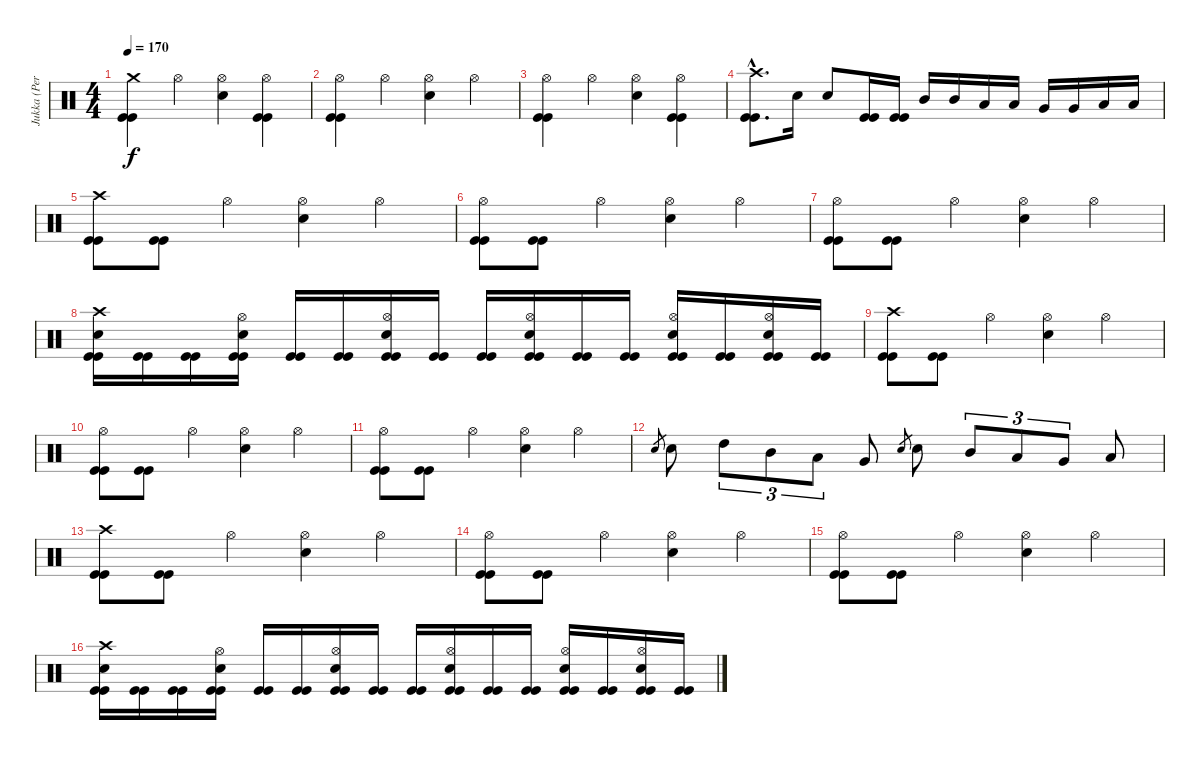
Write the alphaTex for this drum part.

\track ("Jukka (Percussion)" "Jukka (Per") {instrument percussion}
\staff {score}
\articulation defaults
\ts (4 4)
\tempo 170
\clef neutral
\ks c
("Crash medium (hit)" "Kick (hit)" "Kick (hit)").4{dy f} "Hi-Hat (open)".4 ("Hi-Hat (open)" "Snare (hit) 2").4 ("Hi-Hat (open)" "Kick (hit)" "Kick (hit)").4 |
("Hi-Hat (open)" "Kick (hit)" "Kick (hit)").4 "Hi-Hat (open)".4 ("Hi-Hat (open)" "Snare (hit) 2").4 "Hi-Hat (open)".4 |
("Hi-Hat (open)" "Kick (hit)" "Kick (hit)").4 "Hi-Hat (open)".4 ("Hi-Hat (open)" "Snare (hit) 2").4 ("Hi-Hat (open)" "Kick (hit)" "Kick (hit)").4 |
("Crash high (hit)"{hac} "Kick (hit)"{hac} "Kick (hit)"{hac}).8{d} "Snare (hit) 2".16 "Snare (hit) 2".8 ("Kick (hit)" "Kick (hit)").16 ("Kick (hit)" "Kick (hit)").16 "Mid Tom (hit)".16 "Mid Tom (hit)".16 "Low Tom (hit)".16 "Low Tom (hit)".16 "Very Low Tom (hit)".16 "Very Low Tom (hit)".16 "Low Floor Tom (hit)".16 "Low Floor Tom (hit)".16 |
("Crash high (hit)" "Kick (hit)" "Kick (hit)").8 ("Kick (hit)" "Kick (hit)").8 "Hi-Hat (open)".4 ("Hi-Hat (open)" "Snare (hit) 2").4 "Hi-Hat (open)".4 |
("Hi-Hat (open)" "Kick (hit)" "Kick (hit)").8 ("Kick (hit)" "Kick (hit)").8 "Hi-Hat (open)".4 ("Hi-Hat (open)" "Snare (hit) 2").4 "Hi-Hat (open)".4 |
("Hi-Hat (open)" "Kick (hit)" "Kick (hit)").8 ("Kick (hit)" "Kick (hit)").8 "Hi-Hat (open)".4 ("Hi-Hat (open)" "Snare (hit) 2").4 "Hi-Hat (open)".4 |
("Snare (hit) 2" "Kick (hit)" "Kick (hit)" "Crash high (hit)").16 ("Kick (hit)" "Kick (hit)").16 ("Kick (hit)" "Kick (hit)").16 ("Snare (hit) 2" "Kick (hit)" "Kick (hit)" "Hi-Hat (open)").16 ("Kick (hit)" "Kick (hit)").16 ("Kick (hit)" "Kick (hit)").16 ("Snare (hit) 2" "Kick (hit)" "Kick (hit)" "Hi-Hat (open)").16 ("Kick (hit)" "Kick (hit)").16 ("Kick (hit)" "Kick (hit)").16 ("Snare (hit) 2" "Kick (hit)" "Kick (hit)" "Hi-Hat (open)").16 ("Kick (hit)" "Kick (hit)").16 ("Kick (hit)" "Kick (hit)").16 ("Snare (hit) 2" "Kick (hit)" "Kick (hit)" "Hi-Hat (open)").16 ("Kick (hit)" "Kick (hit)").16 ("Snare (hit) 2" "Kick (hit)" "Kick (hit)" "Hi-Hat (open)").16 ("Kick (hit)" "Kick (hit)").16 |
("Crash high (hit)" "Kick (hit)" "Kick (hit)").8 ("Kick (hit)" "Kick (hit)").8 "Hi-Hat (open)".4 ("Hi-Hat (open)" "Snare (hit) 2").4 "Hi-Hat (open)".4 |
("Hi-Hat (open)" "Kick (hit)" "Kick (hit)").8 ("Kick (hit)" "Kick (hit)").8 "Hi-Hat (open)".4 ("Hi-Hat (open)" "Snare (hit) 2").4 "Hi-Hat (open)".4 |
("Hi-Hat (open)" "Kick (hit)" "Kick (hit)").8 ("Kick (hit)" "Kick (hit)").8 "Hi-Hat (open)".4 ("Hi-Hat (open)" "Snare (hit) 2").4 "Hi-Hat (open)".4 |
"Snare (hit) 2".8{gr} "Snare (hit) 2".8 "High Tom (hit)".8{tu (3 2)} "Mid Tom (hit)".8{tu (3 2)} "Low Tom (hit)".8{tu (3 2)} "Very Low Tom (hit)".8 "Snare (hit) 2".8{gr} "Snare (hit) 2".8 "Mid Tom (hit)".8{tu (3 2)} "Low Tom (hit)".8{tu (3 2)} "Very Low Tom (hit)".8{tu (3 2)} "Low Floor Tom (hit)".8 |
("Crash high (hit)" "Kick (hit)" "Kick (hit)").8 ("Kick (hit)" "Kick (hit)").8 "Hi-Hat (open)".4 ("Hi-Hat (open)" "Snare (hit) 2").4 "Hi-Hat (open)".4 |
("Hi-Hat (open)" "Kick (hit)" "Kick (hit)").8 ("Kick (hit)" "Kick (hit)").8 "Hi-Hat (open)".4 ("Hi-Hat (open)" "Snare (hit) 2").4 "Hi-Hat (open)".4 |
("Hi-Hat (open)" "Kick (hit)" "Kick (hit)").8 ("Kick (hit)" "Kick (hit)").8 "Hi-Hat (open)".4 ("Hi-Hat (open)" "Snare (hit) 2").4 "Hi-Hat (open)".4 |
("Snare (hit) 2" "Kick (hit)" "Kick (hit)" "Crash high (hit)").16 ("Kick (hit)" "Kick (hit)").16 ("Kick (hit)" "Kick (hit)").16 ("Snare (hit) 2" "Kick (hit)" "Kick (hit)" "Hi-Hat (open)").16 ("Kick (hit)" "Kick (hit)").16 ("Kick (hit)" "Kick (hit)").16 ("Snare (hit) 2" "Kick (hit)" "Kick (hit)" "Hi-Hat (open)").16 ("Kick (hit)" "Kick (hit)").16 ("Kick (hit)" "Kick (hit)").16 ("Snare (hit) 2" "Kick (hit)" "Kick (hit)" "Hi-Hat (open)").16 ("Kick (hit)" "Kick (hit)").16 ("Kick (hit)" "Kick (hit)").16 ("Snare (hit) 2" "Kick (hit)" "Kick (hit)" "Hi-Hat (open)").16 ("Kick (hit)" "Kick (hit)").16 ("Snare (hit) 2" "Kick (hit)" "Kick (hit)" "Hi-Hat (open)").16 ("Kick (hit)" "Kick (hit)").16
